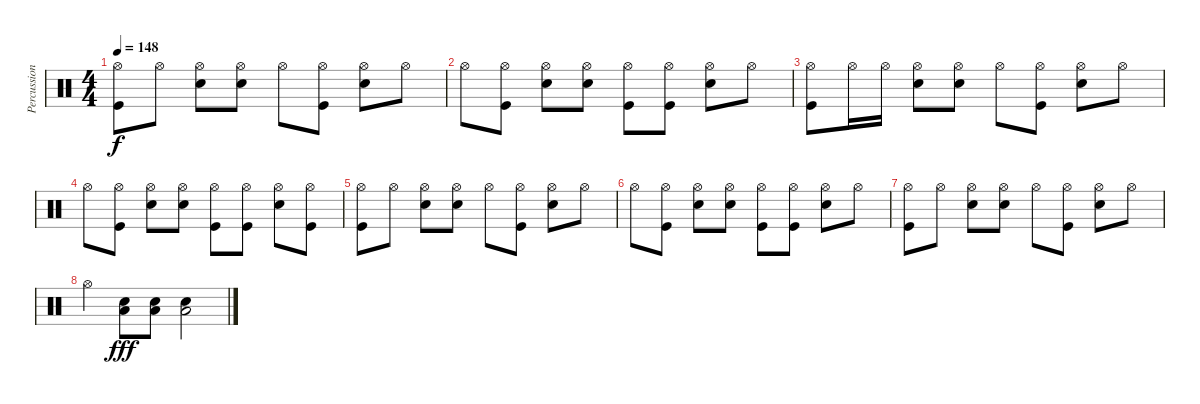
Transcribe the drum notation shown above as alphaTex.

\track ("Percussion" "Percussion") {instrument percussion}
\staff {score}
\articulation defaults
\ts (4 4)
\tempo 148
\clef neutral
\ks c
("Hi-Hat (open)" "Kick (hit)").8{dy f} "Hi-Hat (open)".8 ("Hi-Hat (open)" "Snare (hit) 2").8 ("Hi-Hat (open)" "Snare (hit) 2").8 "Hi-Hat (open)".8 ("Hi-Hat (open)" "Kick (hit)").8 ("Hi-Hat (open)" "Snare (hit) 2").8 "Hi-Hat (open)".8 |
"Hi-Hat (open)".8 ("Hi-Hat (open)" "Kick (hit)").8 ("Hi-Hat (open)" "Snare (hit) 2").8 ("Hi-Hat (open)" "Snare (hit) 2").8 ("Hi-Hat (open)" "Kick (hit)").8 ("Hi-Hat (open)" "Kick (hit)").8 ("Hi-Hat (open)" "Snare (hit) 2").8 "Hi-Hat (open)".8 |
("Hi-Hat (open)" "Kick (hit)").8 "Hi-Hat (open)".16 "Hi-Hat (open)".16 ("Hi-Hat (open)" "Snare (hit) 2").8 ("Hi-Hat (open)" "Snare (hit) 2").8 "Hi-Hat (open)".8 ("Hi-Hat (open)" "Kick (hit)").8 ("Hi-Hat (open)" "Snare (hit) 2").8 "Hi-Hat (open)".8 |
"Hi-Hat (open)".8 ("Hi-Hat (open)" "Kick (hit)").8 ("Hi-Hat (open)" "Snare (hit) 2").8 ("Hi-Hat (open)" "Snare (hit) 2").8 ("Hi-Hat (open)" "Kick (hit)").8 ("Hi-Hat (open)" "Kick (hit)").8 ("Hi-Hat (open)" "Snare (hit) 2").8 ("Hi-Hat (open)" "Kick (hit)").8 |
("Hi-Hat (open)" "Kick (hit)").8 "Hi-Hat (open)".8 ("Hi-Hat (open)" "Snare (hit) 2").8 ("Hi-Hat (open)" "Snare (hit) 2").8 "Hi-Hat (open)".8 ("Hi-Hat (open)" "Kick (hit)").8 ("Hi-Hat (open)" "Snare (hit) 2").8 "Hi-Hat (open)".8 |
"Hi-Hat (open)".8 ("Hi-Hat (open)" "Kick (hit)").8 ("Hi-Hat (open)" "Snare (hit) 2").8 ("Hi-Hat (open)" "Snare (hit) 2").8 ("Hi-Hat (open)" "Kick (hit)").8 ("Hi-Hat (open)" "Kick (hit)").8 ("Hi-Hat (open)" "Snare (hit) 2").8 "Hi-Hat (open)".8 |
("Hi-Hat (open)" "Kick (hit)").8 "Hi-Hat (open)".8 ("Hi-Hat (open)" "Snare (hit) 2").8 ("Hi-Hat (open)" "Snare (hit) 2").8 "Hi-Hat (open)".8 ("Hi-Hat (open)" "Kick (hit)").8 ("Hi-Hat (open)" "Snare (hit) 2").8 "Hi-Hat (open)".8 |
"Hi-Hat (open)".4 ("Metronome (bell)" "Low Tom (hit)").8{dy fff} ("Metronome (bell)" "Low Tom (hit)").8 ("Metronome (bell)" "Low Tom (hit)").2
